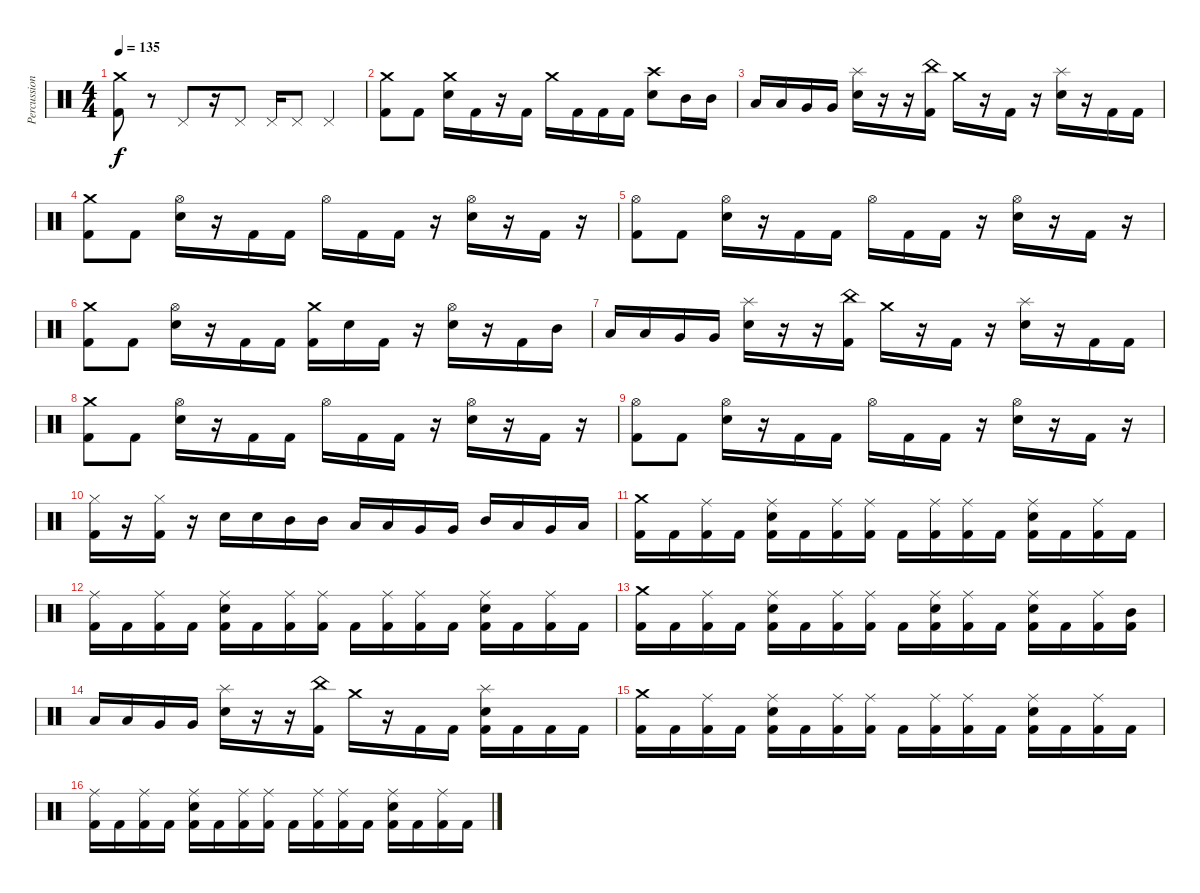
\track ("Percussion" "Percussion") {instrument percussion}
\staff {score}
\articulation defaults
\ts (4 4)
\tempo 135
\clef neutral
\ks c
("Crash medium (hit)" "Kick (hit) 2").8{dy f} r.8 "Pedal Hi-Hat (hit)".8 r.16 "Pedal Hi-Hat (hit)".8 "Pedal Hi-Hat (hit)".16 "Pedal Hi-Hat (hit)".8 "Pedal Hi-Hat (hit)".4 |
("Crash medium (hit)" "Kick (hit) 2").8 "Kick (hit) 2".8 ("Crash medium (hit)" "Electric Snare (hit)").16 "Kick (hit) 2".16 r.16 "Kick (hit) 2".16 "Crash medium (hit)".16 "Kick (hit) 2".16 "Kick (hit) 2".16 "Kick (hit) 2".16 ("Crash high (hit)" "Electric Snare (hit)").8 "Mid Tom (hit)".16 "Mid Tom (hit)".16 |
"Low Tom (hit)".16 "Low Tom (hit)".16 "Very Low Tom (hit)".16 "Very Low Tom (hit)".16 ("Splash (hit)" "Electric Snare (hit)").16 r.16 r.16 ("China (hit)" "Kick (hit) 2").16 "Crash medium (hit)".16 r.16 "Kick (hit) 2".16 r.16 ("Splash (hit)" "Electric Snare (hit)").16 r.16 "Kick (hit) 2".16 "Kick (hit) 2".16 |
("Crash medium (hit)" "Kick (hit) 2").8 "Kick (hit) 2".8 ("Hi-Hat (open)" "Electric Snare (hit)").16 r.16 "Kick (hit) 2".16 "Kick (hit) 2".16 "Hi-Hat (open)".16 "Kick (hit) 2".16 "Kick (hit) 2".16 r.16 ("Hi-Hat (open)" "Electric Snare (hit)").16 r.16 "Kick (hit) 2".16 r.16 |
("Hi-Hat (open)" "Kick (hit) 2").8 "Kick (hit) 2".8 ("Hi-Hat (open)" "Electric Snare (hit)").16 r.16 "Kick (hit) 2".16 "Kick (hit) 2".16 "Hi-Hat (open)".16 "Kick (hit) 2".16 "Kick (hit) 2".16 r.16 ("Hi-Hat (open)" "Electric Snare (hit)").16 r.16 "Kick (hit) 2".16 r.16 |
("Crash medium (hit)" "Kick (hit) 2").8 "Kick (hit) 2".8 ("Hi-Hat (open)" "Electric Snare (hit)").16 r.16 "Kick (hit) 2".16 "Kick (hit) 2".16 ("Crash medium (hit)" "Kick (hit) 2").16 "Electric Snare (hit)".16 "Kick (hit) 2".16 r.16 ("Hi-Hat (open)" "Electric Snare (hit)").16 r.16 "Kick (hit) 2".16 "Mid Tom (hit)".16 |
"Low Tom (hit)".16 "Low Tom (hit)".16 "Very Low Tom (hit)".16 "Very Low Tom (hit)".16 ("Splash (hit)" "Electric Snare (hit)").16 r.16 r.16 ("China (hit)" "Kick (hit) 2").16 "Crash medium (hit)".16 r.16 "Kick (hit) 2".16 r.16 ("Splash (hit)" "Electric Snare (hit)").16 r.16 "Kick (hit) 2".16 "Kick (hit) 2".16 |
("Crash medium (hit)" "Kick (hit) 2").8 "Kick (hit) 2".8 ("Hi-Hat (open)" "Electric Snare (hit)").16 r.16 "Kick (hit) 2".16 "Kick (hit) 2".16 "Hi-Hat (open)".16 "Kick (hit) 2".16 "Kick (hit) 2".16 r.16 ("Hi-Hat (open)" "Electric Snare (hit)").16 r.16 "Kick (hit) 2".16 r.16 |
("Hi-Hat (open)" "Kick (hit) 2").8 "Kick (hit) 2".8 ("Hi-Hat (open)" "Electric Snare (hit)").16 r.16 "Kick (hit) 2".16 "Kick (hit) 2".16 "Hi-Hat (open)".16 "Kick (hit) 2".16 "Kick (hit) 2".16 r.16 ("Hi-Hat (open)" "Electric Snare (hit)").16 r.16 "Kick (hit) 2".16 r.16 |
("Hi-Hat (closed)" "Kick (hit) 2").16 r.16 ("Hi-Hat (closed)" "Kick (hit) 2").16 r.16 "Electric Snare (hit)".16 "Electric Snare (hit)".16 "Mid Tom (hit)".16 "Mid Tom (hit)".16 "Low Tom (hit)".16 "Low Tom (hit)".16 "Very Low Tom (hit)".16 "Very Low Tom (hit)".16 "Mid Tom (hit)".16 "Low Tom (hit)".16 "Very Low Tom (hit)".16 "Low Floor Tom (hit)".16 |
("Crash medium (hit)" "Kick (hit) 2").16 "Kick (hit) 2".16 ("Ride (middle)" "Kick (hit) 2").16 "Kick (hit) 2".16 ("Ride (middle)" "Electric Snare (hit)" "Kick (hit) 2").16 "Kick (hit) 2".16 ("Ride (middle)" "Kick (hit) 2").16 ("Ride (middle)" "Kick (hit) 2").16 "Kick (hit) 2".16 ("Ride (middle)" "Kick (hit) 2").16 ("Ride (middle)" "Kick (hit) 2").16 "Kick (hit) 2".16 ("Ride (middle)" "Electric Snare (hit)" "Kick (hit) 2").16 "Kick (hit) 2".16 ("Ride (middle)" "Kick (hit) 2").16 "Kick (hit) 2".16 |
("Ride (middle)" "Kick (hit) 2").16 "Kick (hit) 2".16 ("Ride (middle)" "Kick (hit) 2").16 "Kick (hit) 2".16 ("Ride (middle)" "Electric Snare (hit)" "Kick (hit) 2").16 "Kick (hit) 2".16 ("Ride (middle)" "Kick (hit) 2").16 ("Ride (middle)" "Kick (hit) 2").16 "Kick (hit) 2".16 ("Ride (middle)" "Kick (hit) 2").16 ("Ride (middle)" "Kick (hit) 2").16 "Kick (hit) 2".16 ("Ride (middle)" "Electric Snare (hit)" "Kick (hit) 2").16 "Kick (hit) 2".16 ("Ride (middle)" "Kick (hit) 2").16 "Kick (hit) 2".16 |
("Crash medium (hit)" "Kick (hit) 2").16 "Kick (hit) 2".16 ("Ride (middle)" "Kick (hit) 2").16 "Kick (hit) 2".16 ("Ride (middle)" "Electric Snare (hit)" "Kick (hit) 2").16 "Kick (hit) 2".16 ("Ride (middle)" "Kick (hit) 2").16 ("Ride (middle)" "Kick (hit) 2").16 "Kick (hit) 2".16 ("Ride (middle)" "Electric Snare (hit)" "Kick (hit) 2").16 ("Ride (middle)" "Kick (hit) 2").16 "Kick (hit) 2".16 ("Ride (middle)" "Electric Snare (hit)" "Kick (hit) 2").16 "Kick (hit) 2".16 ("Ride (middle)" "Kick (hit) 2").16 ("Mid Tom (hit)" "Kick (hit) 2").16 |
"Low Tom (hit)".16 "Low Tom (hit)".16 "Very Low Tom (hit)".16 "Very Low Tom (hit)".16 ("Splash (hit)" "Electric Snare (hit)").16 r.16 r.16 ("China (hit)" "Kick (hit) 2").16 "Crash medium (hit)".16 r.16 "Kick (hit) 2".16 "Kick (hit) 2".16 ("Splash (hit)" "Electric Snare (hit)" "Kick (hit) 2").16 "Kick (hit) 2".16 "Kick (hit) 2".16 "Kick (hit) 2".16 |
("Crash medium (hit)" "Kick (hit) 2").16 "Kick (hit) 2".16 ("Ride (middle)" "Kick (hit) 2").16 "Kick (hit) 2".16 ("Ride (middle)" "Electric Snare (hit)" "Kick (hit) 2").16 "Kick (hit) 2".16 ("Ride (middle)" "Kick (hit) 2").16 ("Ride (middle)" "Kick (hit) 2").16 "Kick (hit) 2".16 ("Ride (middle)" "Kick (hit) 2").16 ("Ride (middle)" "Kick (hit) 2").16 "Kick (hit) 2".16 ("Ride (middle)" "Electric Snare (hit)" "Kick (hit) 2").16 "Kick (hit) 2".16 ("Ride (middle)" "Kick (hit) 2").16 "Kick (hit) 2".16 |
("Ride (middle)" "Kick (hit) 2").16 "Kick (hit) 2".16 ("Ride (middle)" "Kick (hit) 2").16 "Kick (hit) 2".16 ("Ride (middle)" "Electric Snare (hit)" "Kick (hit) 2").16 "Kick (hit) 2".16 ("Ride (middle)" "Kick (hit) 2").16 ("Ride (middle)" "Kick (hit) 2").16 "Kick (hit) 2".16 ("Ride (middle)" "Kick (hit) 2").16 ("Ride (middle)" "Kick (hit) 2").16 "Kick (hit) 2".16 ("Ride (middle)" "Electric Snare (hit)" "Kick (hit) 2").16 "Kick (hit) 2".16 ("Ride (middle)" "Kick (hit) 2").16 "Kick (hit) 2".16
